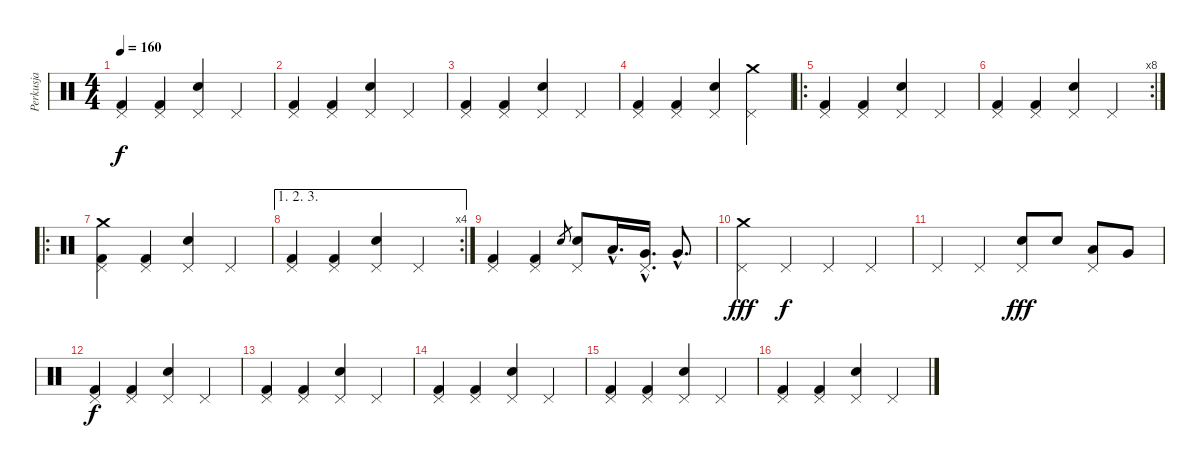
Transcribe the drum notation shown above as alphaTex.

\track ("Perkusja" "Perkusja") {instrument percussion}
\staff {score}
\articulation defaults
\ts (4 4)
\tempo 160
\clef neutral
\ks c
("Pedal Hi-Hat (hit)" "Kick (hit) 2").4{dy f} ("Pedal Hi-Hat (hit)" "Kick (hit) 2").4 ("Pedal Hi-Hat (hit)" "Snare (hit) 2").4 "Pedal Hi-Hat (hit)".4 |
("Pedal Hi-Hat (hit)" "Kick (hit) 2").4 ("Pedal Hi-Hat (hit)" "Kick (hit) 2").4 ("Pedal Hi-Hat (hit)" "Snare (hit) 2").4 "Pedal Hi-Hat (hit)".4 |
("Pedal Hi-Hat (hit)" "Kick (hit) 2").4 ("Pedal Hi-Hat (hit)" "Kick (hit) 2").4 ("Pedal Hi-Hat (hit)" "Snare (hit) 2").4 "Pedal Hi-Hat (hit)".4 |
("Pedal Hi-Hat (hit)" "Kick (hit) 2").4 ("Pedal Hi-Hat (hit)" "Kick (hit) 2").4 ("Pedal Hi-Hat (hit)" "Snare (hit) 2").4 ("Pedal Hi-Hat (hit)" "Crash medium (hit)").4 |
\ro
("Pedal Hi-Hat (hit)" "Kick (hit) 2").4 ("Pedal Hi-Hat (hit)" "Kick (hit) 2").4 ("Pedal Hi-Hat (hit)" "Snare (hit) 2").4 "Pedal Hi-Hat (hit)".4 |
\rc 8
("Pedal Hi-Hat (hit)" "Kick (hit) 2").4 ("Pedal Hi-Hat (hit)" "Kick (hit) 2").4 ("Pedal Hi-Hat (hit)" "Snare (hit) 2").4 "Pedal Hi-Hat (hit)".4 |
\ro
("Pedal Hi-Hat (hit)" "Crash medium (hit)" "Kick (hit) 2").4 ("Pedal Hi-Hat (hit)" "Kick (hit) 2").4 ("Pedal Hi-Hat (hit)" "Snare (hit) 2").4 "Pedal Hi-Hat (hit)".4 |
\ae (1 2 3)
\rc 4
("Pedal Hi-Hat (hit)" "Kick (hit) 2").4 ("Pedal Hi-Hat (hit)" "Kick (hit) 2").4 ("Pedal Hi-Hat (hit)" "Snare (hit) 2").4 "Pedal Hi-Hat (hit)".4 |
("Pedal Hi-Hat (hit)" "Kick (hit) 2").4 ("Pedal Hi-Hat (hit)" "Kick (hit) 2").4 "Snare (hit) 2".8{gr} ("Pedal Hi-Hat (hit)" "Snare (hit) 2").8 "Low Tom (hit)"{hac}.16{d} ("Pedal Hi-Hat (hit)"{hac} "Very Low Tom (hit)"{hac}).16{d} "Very Low Tom (hit)"{hac}.8{d} |
("Pedal Hi-Hat (hit)" "Crash medium (hit)").4{dy fff} "Pedal Hi-Hat (hit)".4{dy f} "Pedal Hi-Hat (hit)".4 "Pedal Hi-Hat (hit)".4 |
"Pedal Hi-Hat (hit)".4 "Pedal Hi-Hat (hit)".4 ("Pedal Hi-Hat (hit)" "Snare (hit) 2").8{dy fff} "Snare (hit) 2".8 ("Pedal Hi-Hat (hit)" "Low Tom (hit)").8 "Very Low Tom (hit)".8 |
("Pedal Hi-Hat (hit)" "Kick (hit) 2").4{dy f} ("Pedal Hi-Hat (hit)" "Kick (hit) 2").4 ("Pedal Hi-Hat (hit)" "Snare (hit) 2").4 "Pedal Hi-Hat (hit)".4 |
("Pedal Hi-Hat (hit)" "Kick (hit) 2").4 ("Pedal Hi-Hat (hit)" "Kick (hit) 2").4 ("Pedal Hi-Hat (hit)" "Snare (hit) 2").4 "Pedal Hi-Hat (hit)".4 |
("Pedal Hi-Hat (hit)" "Kick (hit) 2").4 ("Pedal Hi-Hat (hit)" "Kick (hit) 2").4 ("Pedal Hi-Hat (hit)" "Snare (hit) 2").4 "Pedal Hi-Hat (hit)".4 |
("Pedal Hi-Hat (hit)" "Kick (hit) 2").4 ("Pedal Hi-Hat (hit)" "Kick (hit) 2").4 ("Pedal Hi-Hat (hit)" "Snare (hit) 2").4 "Pedal Hi-Hat (hit)".4 |
("Pedal Hi-Hat (hit)" "Kick (hit) 2").4 ("Pedal Hi-Hat (hit)" "Kick (hit) 2").4 ("Pedal Hi-Hat (hit)" "Snare (hit) 2").4 "Pedal Hi-Hat (hit)".4
